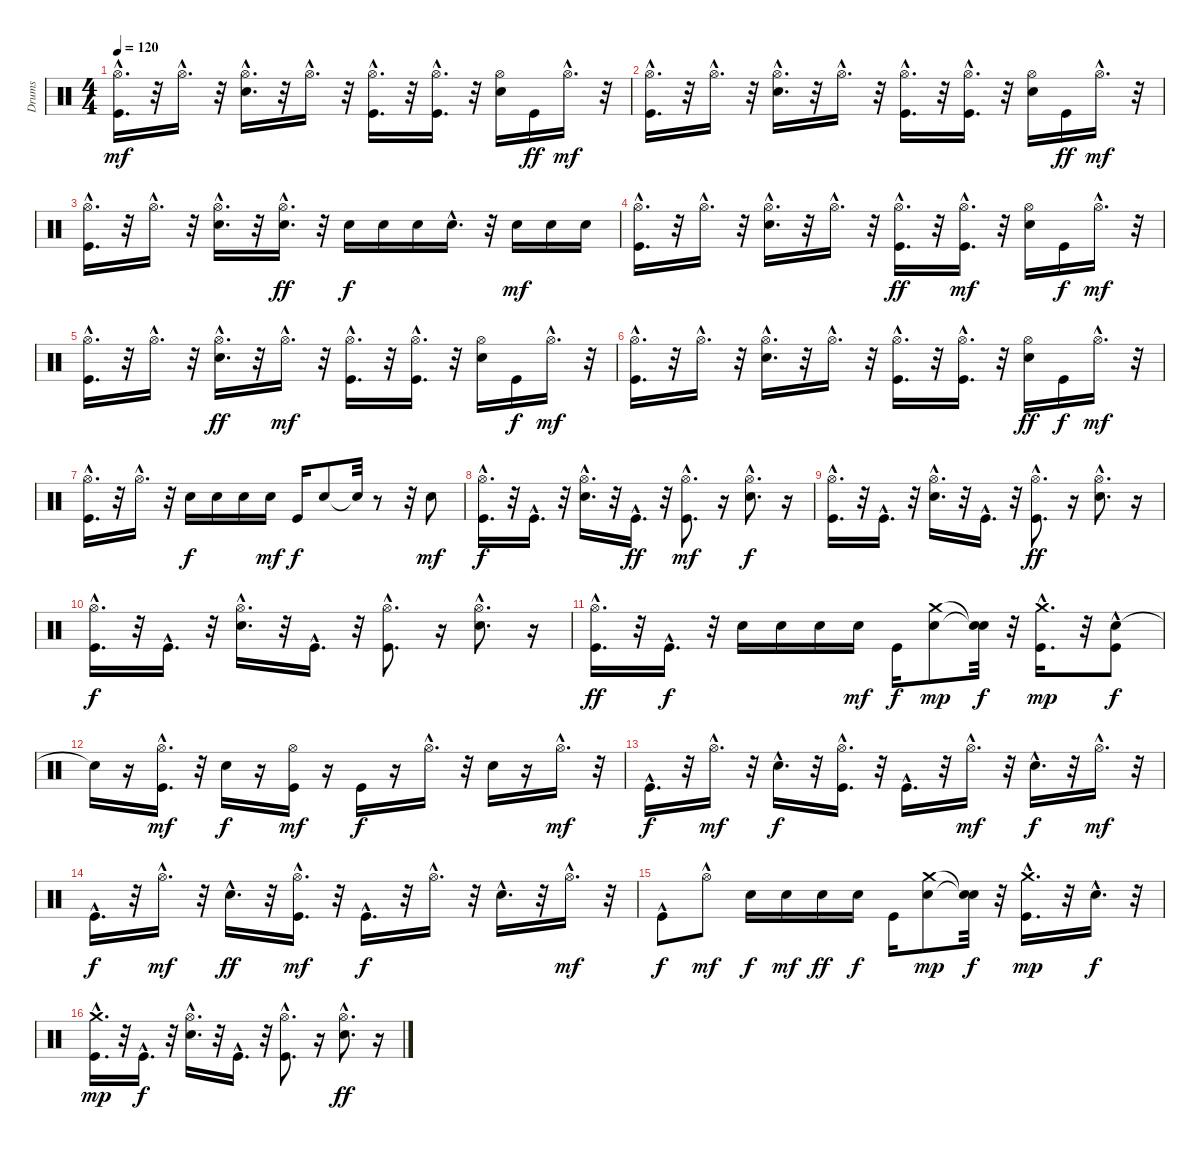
\track ("Drums" "Drums") {instrument percussion}
\staff {score}
\articulation defaults
\ts (4 4)
\tempo 120
\clef neutral
\ks c
("Hi-Hat (open)"{hac} "Kick (hit)"{hac}).16{d dy mf} r.32 "Hi-Hat (open)"{hac}.16{d} r.32 ("Hi-Hat (open)"{hac} "Electric Snare (hit)"{hac}).16{d} r.32 "Hi-Hat (open)"{hac}.16{d} r.32 ("Hi-Hat (open)"{hac} "Kick (hit)"{hac}).16{d} r.32 ("Hi-Hat (open)"{hac} "Kick (hit)"{hac}).16{d} r.32 ("Hi-Hat (open)" "Electric Snare (hit)").16 "Kick (hit)".16{dy ff} "Hi-Hat (open)"{hac}.16{d dy mf} r.32 |
("Hi-Hat (open)"{hac} "Kick (hit)"{hac}).16{d} r.32 "Hi-Hat (open)"{hac}.16{d} r.32 ("Hi-Hat (open)"{hac} "Electric Snare (hit)"{hac}).16{d} r.32 "Hi-Hat (open)"{hac}.16{d} r.32 ("Hi-Hat (open)"{hac} "Kick (hit)"{hac}).16{d} r.32 ("Hi-Hat (open)"{hac} "Kick (hit)"{hac}).16{d} r.32 ("Hi-Hat (open)" "Electric Snare (hit)").16 "Kick (hit)".16{dy ff} "Hi-Hat (open)"{hac}.16{d dy mf} r.32 |
("Hi-Hat (open)"{hac} "Kick (hit)"{hac}).16{d} r.32 "Hi-Hat (open)"{hac}.16{d} r.32 ("Hi-Hat (open)"{hac} "Electric Snare (hit)"{hac}).16{d} r.32 ("Hi-Hat (open)"{hac} "Electric Snare (hit)"{hac}).16{d dy ff} r.32 "Electric Snare (hit)".16{dy f} "Electric Snare (hit)".16 "Electric Snare (hit)".16 "Electric Snare (hit)"{hac}.16{d} r.32 "Electric Snare (hit)".16{dy mf} "Electric Snare (hit)".16 "Electric Snare (hit)".16 |
("Hi-Hat (open)"{hac} "Kick (hit)"{hac}).16{d} r.32 "Hi-Hat (open)"{hac}.16{d} r.32 ("Hi-Hat (open)"{hac} "Electric Snare (hit)"{hac}).16{d} r.32 "Hi-Hat (open)"{hac}.16{d} r.32 ("Hi-Hat (open)"{hac} "Kick (hit)"{hac}).16{d dy ff} r.32 ("Hi-Hat (open)"{hac} "Kick (hit)"{hac}).16{d dy mf} r.32 ("Hi-Hat (open)" "Electric Snare (hit)").16 "Kick (hit)".16{dy f} "Hi-Hat (open)"{hac}.16{d dy mf} r.32 |
("Hi-Hat (open)"{hac} "Kick (hit)"{hac}).16{d} r.32 "Hi-Hat (open)"{hac}.16{d} r.32 ("Hi-Hat (open)"{hac} "Electric Snare (hit)"{hac}).16{d dy ff} r.32 "Hi-Hat (open)"{hac}.16{d dy mf} r.32 ("Hi-Hat (open)"{hac} "Kick (hit)"{hac}).16{d} r.32 ("Hi-Hat (open)"{hac} "Kick (hit)"{hac}).16{d} r.32 ("Hi-Hat (open)" "Electric Snare (hit)").16 "Kick (hit)".16{dy f} "Hi-Hat (open)"{hac}.16{d dy mf} r.32 |
("Hi-Hat (open)"{hac} "Kick (hit)"{hac}).16{d} r.32 "Hi-Hat (open)"{hac}.16{d} r.32 ("Hi-Hat (open)"{hac} "Electric Snare (hit)"{hac}).16{d} r.32 "Hi-Hat (open)"{hac}.16{d} r.32 ("Hi-Hat (open)"{hac} "Kick (hit)"{hac}).16{d} r.32 ("Hi-Hat (open)"{hac} "Kick (hit)"{hac}).16{d} r.32 ("Hi-Hat (open)" "Electric Snare (hit)").16{dy ff} "Kick (hit)".16{dy f} "Hi-Hat (open)"{hac}.16{d dy mf} r.32 |
("Hi-Hat (open)"{hac} "Kick (hit)"{hac}).16{d} r.32 "Hi-Hat (open)"{hac}.16{d} r.32 "Electric Snare (hit)".16{dy f} "Electric Snare (hit)".16 "Electric Snare (hit)".16 "Electric Snare (hit)".16{dy mf} "Kick (hit)".16{dy f} "Electric Snare (hit)".8 "Snare (hit)"{t}.32 r.8 r.32 "Electric Snare (hit)".8{dy mf} |
("Hi-Hat (open)"{hac} "Kick (hit)"{hac}).16{d dy f} r.32 "Kick (hit)"{hac}.16{d} r.32 ("Hi-Hat (open)"{hac} "Electric Snare (hit)"{hac}).16{d} r.32 "Kick (hit)"{hac}.16{d dy ff} r.32 ("Hi-Hat (open)"{hac} "Kick (hit)"{hac}).8{d dy mf} r.16 ("Hi-Hat (open)"{hac} "Electric Snare (hit)"{hac}).8{d dy f} r.16 |
("Hi-Hat (open)"{hac} "Kick (hit)"{hac}).16{d} r.32 "Kick (hit)"{hac}.16{d} r.32 ("Hi-Hat (open)"{hac} "Electric Snare (hit)"{hac}).16{d} r.32 "Kick (hit)"{hac}.16{d} r.32 ("Hi-Hat (open)"{hac} "Kick (hit)"{hac}).8{d dy ff} r.16 ("Hi-Hat (open)"{hac} "Electric Snare (hit)"{hac}).8{d} r.16 |
("Hi-Hat (open)"{hac} "Kick (hit)"{hac}).16{d dy f} r.32 "Kick (hit)"{hac}.16{d} r.32 ("Hi-Hat (open)"{hac} "Electric Snare (hit)"{hac}).16{d} r.32 "Kick (hit)"{hac}.16{d} r.32 ("Hi-Hat (open)"{hac} "Kick (hit)"{hac}).8{d} r.16 ("Hi-Hat (open)"{hac} "Electric Snare (hit)"{hac}).8{d} r.16 |
("Hi-Hat (open)"{hac} "Kick (hit)"{hac}).16{d dy ff} r.32 "Kick (hit)"{hac}.16{d dy f} r.32 "Electric Snare (hit)".16 "Electric Snare (hit)".16 "Electric Snare (hit)".16 "Electric Snare (hit)".16{dy mf} "Kick (hit)".16{dy f} ("Electric Snare (hit)" "Crash medium (hit)").8{dy mp} ("Snare (hit)"{t} "Snare (hit)"{t}).32{dy f} r.32 ("Kick (hit)"{hac} "Crash medium (hit)"{hac}).16{d dy mp} r.32 ("Electric Snare (hit)" "Kick (hit)"{hac}).8{dy f} |
"Snare (hit)"{t}.16 r.16 ("Hi-Hat (open)"{hac} "Kick (hit)").16{d dy mf} r.32 "Electric Snare (hit)".16{dy f} r.16 ("Hi-Hat (open)" "Kick (hit)").16{dy mf} r.16 "Kick (hit)".16{dy f} r.16 "Hi-Hat (open)"{hac}.16{d} r.32 "Electric Snare (hit)".16 r.16 "Hi-Hat (open)"{hac}.16{d dy mf} r.32 |
"Kick (hit)"{hac}.16{d dy f} r.32 "Hi-Hat (open)"{hac}.16{d dy mf} r.32 "Electric Snare (hit)"{hac}.16{d dy f} r.32 ("Hi-Hat (open)"{hac} "Kick (hit)"{hac}).16{d} r.32 "Kick (hit)"{hac}.16{d} r.32 "Hi-Hat (open)"{hac}.16{d dy mf} r.32 "Electric Snare (hit)"{hac}.16{d dy f} r.32 "Hi-Hat (open)"{hac}.16{d dy mf} r.32 |
"Kick (hit)"{hac}.16{d dy f} r.32 "Hi-Hat (open)"{hac}.16{d dy mf} r.32 "Electric Snare (hit)"{hac}.16{d dy ff} r.32 ("Hi-Hat (open)"{hac} "Kick (hit)"{hac}).16{d dy mf} r.32 "Kick (hit)"{hac}.16{d dy f} r.32 "Hi-Hat (open)"{hac}.16{d} r.32 "Electric Snare (hit)"{hac}.16{d} r.32 "Hi-Hat (open)"{hac}.16{d dy mf} r.32 |
"Kick (hit)"{hac}.8{dy f} "Hi-Hat (open)"{hac}.8{dy mf} "Electric Snare (hit)".16{dy f} "Electric Snare (hit)".16{dy mf} "Electric Snare (hit)".16{dy ff} "Electric Snare (hit)".16{dy f} "Kick (hit)".16 ("Electric Snare (hit)" "Crash medium (hit)").8{dy mp} ("Snare (hit)"{t} "Snare (hit)"{t}).32{dy f} r.32 ("Kick (hit)"{hac} "Crash medium (hit)"{hac}).16{d dy mp} r.32 "Electric Snare (hit)"{hac}.16{d dy f} r.32 |
("Kick (hit)"{hac} "Crash medium (hit)"{hac}).16{d dy mp} r.32 "Kick (hit)"{hac}.16{d dy f} r.32 ("Hi-Hat (open)"{hac} "Electric Snare (hit)"{hac}).16{d} r.32 "Kick (hit)"{hac}.16{d} r.32 ("Hi-Hat (open)"{hac} "Kick (hit)"{hac}).8{d} r.16 ("Hi-Hat (open)"{hac} "Electric Snare (hit)"{hac}).8{d dy ff} r.16
